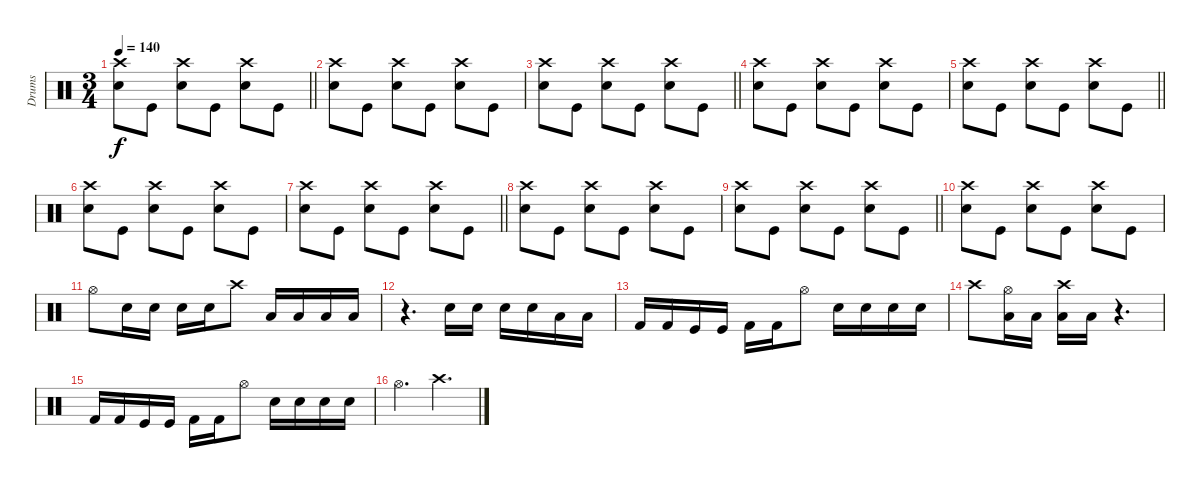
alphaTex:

\track ("Drums" "Drums") {instrument percussion}
\staff {score}
\articulation defaults
\ts (3 4)
\tempo 140
\clef neutral
\barLineRight lightlight
\ks c
("Crash high (hit)" "Snare (hit) 2").8{dy f} "Kick (hit)".8 ("Crash high (hit)" "Snare (hit) 2").8 "Kick (hit)".8 ("Crash high (hit)" "Snare (hit) 2").8 "Kick (hit)".8 |
("Crash high (hit)" "Snare (hit) 2").8 "Kick (hit)".8 ("Crash high (hit)" "Snare (hit) 2").8 "Kick (hit)".8 ("Crash high (hit)" "Snare (hit) 2").8 "Kick (hit)".8 |
\barLineRight lightlight
("Crash high (hit)" "Snare (hit) 2").8 "Kick (hit)".8 ("Crash high (hit)" "Snare (hit) 2").8 "Kick (hit)".8 ("Crash high (hit)" "Snare (hit) 2").8 "Kick (hit)".8 |
("Crash high (hit)" "Snare (hit) 2").8 "Kick (hit)".8 ("Crash high (hit)" "Snare (hit) 2").8 "Kick (hit)".8 ("Crash high (hit)" "Snare (hit) 2").8 "Kick (hit)".8 |
\barLineRight lightlight
("Crash high (hit)" "Snare (hit) 2").8 "Kick (hit)".8 ("Crash high (hit)" "Snare (hit) 2").8 "Kick (hit)".8 ("Crash high (hit)" "Snare (hit) 2").8 "Kick (hit)".8 |
("Crash high (hit)" "Snare (hit) 2").8 "Kick (hit)".8 ("Crash high (hit)" "Snare (hit) 2").8 "Kick (hit)".8 ("Crash high (hit)" "Snare (hit) 2").8 "Kick (hit)".8 |
\barLineRight lightlight
("Crash high (hit)" "Snare (hit) 2").8 "Kick (hit)".8 ("Crash high (hit)" "Snare (hit) 2").8 "Kick (hit)".8 ("Crash high (hit)" "Snare (hit) 2").8 "Kick (hit)".8 |
("Crash high (hit)" "Snare (hit) 2").8 "Kick (hit)".8 ("Crash high (hit)" "Snare (hit) 2").8 "Kick (hit)".8 ("Crash high (hit)" "Snare (hit) 2").8 "Kick (hit)".8 |
\barLineRight lightlight
("Crash high (hit)" "Snare (hit) 2").8 "Kick (hit)".8 ("Crash high (hit)" "Snare (hit) 2").8 "Kick (hit)".8 ("Crash high (hit)" "Snare (hit) 2").8 "Kick (hit)".8 |
("Crash high (hit)" "Snare (hit) 2").8 "Kick (hit)".8 ("Crash high (hit)" "Snare (hit) 2").8 "Kick (hit)".8 ("Crash high (hit)" "Snare (hit) 2").8 "Kick (hit)".8 |
"Hi-Hat (open)".8 "Snare (hit) 2".16 "Snare (hit) 2".16 "Snare (hit) 2".16 "Snare (hit) 2".16 "Crash high (hit)".8 "Low Tom (hit)".16 "Low Tom (hit)".16 "Low Tom (hit)".16 "Low Tom (hit)".16 |
r.4{d} "Snare (hit) 2".16 "Snare (hit) 2".16 "Snare (hit) 2".16 "Snare (hit) 2".16 "Low Tom (hit)".16 "Low Tom (hit)".16 |
"Kick (hit) 2".16 "Kick (hit) 2".16 "Kick (hit)".16 "Kick (hit)".16 "Kick (hit) 2".16 "Kick (hit) 2".16 "Hi-Hat (open)".8 "Snare (hit) 2".16 "Snare (hit) 2".16 "Snare (hit) 2".16 "Snare (hit) 2".16 |
"Crash high (hit)".8 ("Low Tom (hit)" "Hi-Hat (open)").16 "Low Tom (hit)".16 ("Low Tom (hit)" "Crash high (hit)").16 "Low Tom (hit)".16 r.4{d} |
"Kick (hit) 2".16 "Kick (hit) 2".16 "Kick (hit)".16 "Kick (hit)".16 "Kick (hit) 2".16 "Kick (hit) 2".16 "Hi-Hat (open)".8 "Snare (hit) 2".16 "Snare (hit) 2".16 "Snare (hit) 2".16 "Snare (hit) 2".16 |
"Hi-Hat (open)".4{d} "Crash high (hit)".4{d}
